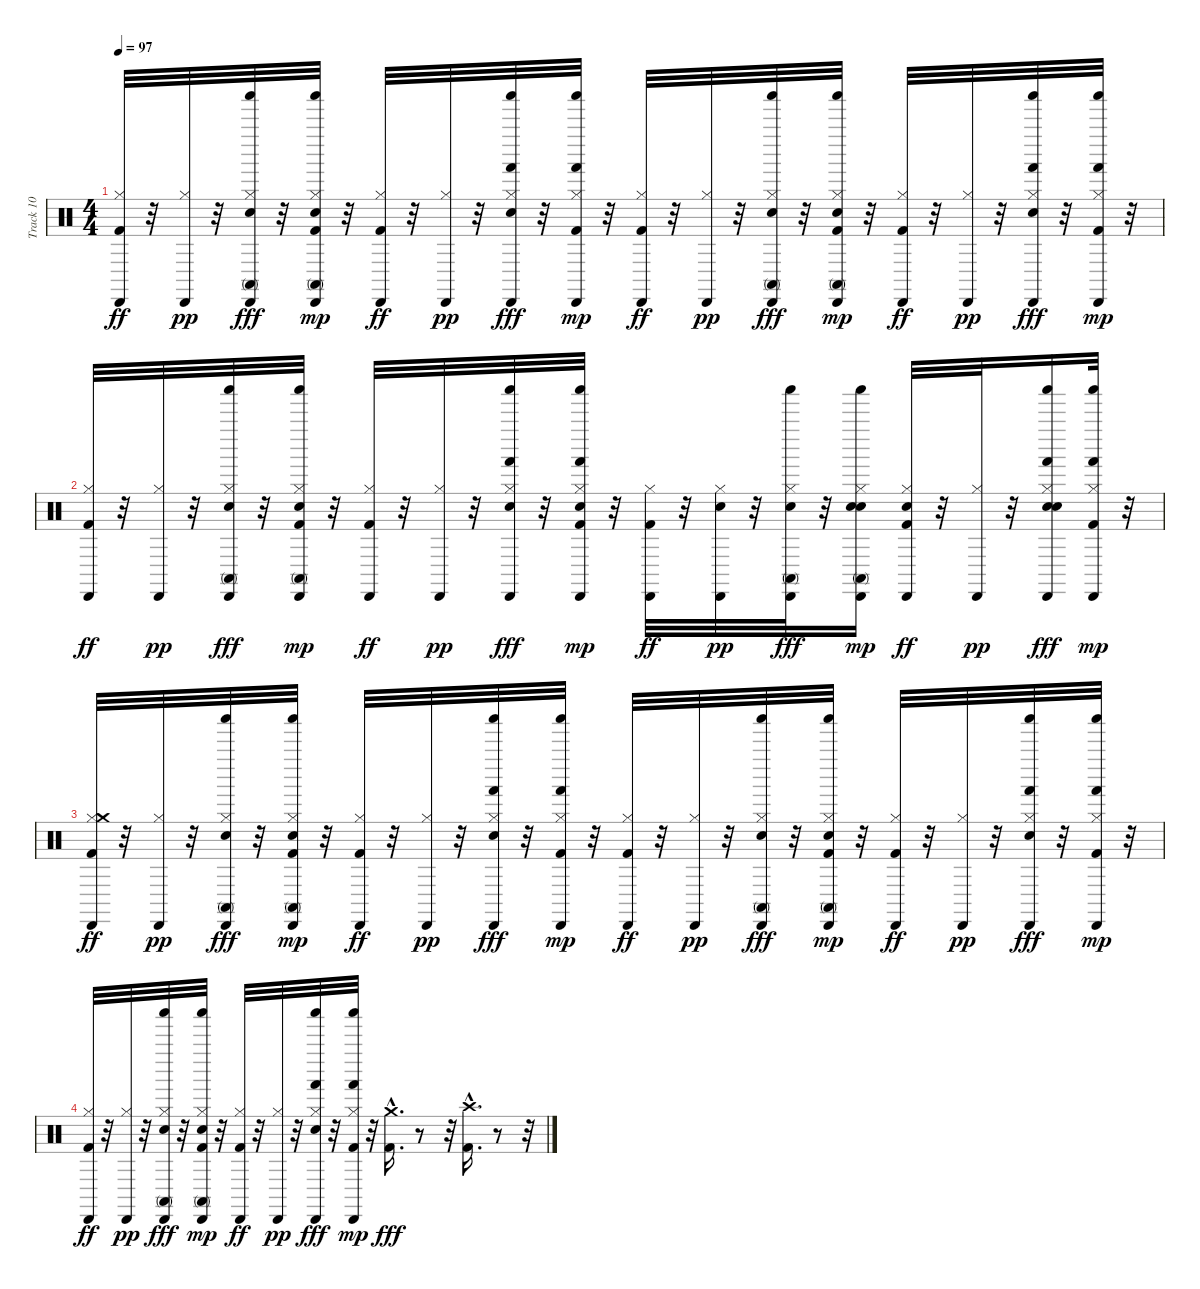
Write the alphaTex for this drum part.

\track ("Track 10" "Track 10") {instrument percussion}
\staff {score}
\articulation defaults
\ts (4 4)
\tempo 97
\clef neutral
\ks c
("Hi-Hat (closed)" "Cabasa (hit)" "Kick (hit) 2").32{dy ff} r.32 ("Hi-Hat (closed)" "Cabasa (hit)").32{dy pp} r.32 ("Hi-Hat (closed)" "Shaker (hit)" "Conga high (mute)" "Cabasa (hit)" "Snare (hit) 2").32{dy fff} r.32 ("Hi-Hat (closed)" "Shaker (hit)" "Conga high (mute)" "Cabasa (hit)" "Snare (hit) 2" "Kick (hit) 2").32{dy mp} r.32 ("Hi-Hat (closed)" "Cabasa (hit)" "Kick (hit) 2").32{dy ff} r.32 ("Hi-Hat (closed)" "Cabasa (hit)").32{dy pp} r.32 ("Hi-Hat (closed)" "Shaker (hit)" "Hand (hit)" "Cabasa (hit)" "Snare (hit) 2").32{dy fff} r.32 ("Hi-Hat (closed)" "Shaker (hit)" "Hand (hit)" "Cabasa (hit)" "Kick (hit) 2").32{dy mp} r.32 ("Hi-Hat (closed)" "Cabasa (hit)" "Kick (hit) 2").32{dy ff} r.32 ("Hi-Hat (closed)" "Cabasa (hit)").32{dy pp} r.32 ("Hi-Hat (closed)" "Shaker (hit)" "Conga high (mute)" "Cabasa (hit)" "Snare (hit) 2").32{dy fff} r.32 ("Hi-Hat (closed)" "Shaker (hit)" "Conga high (mute)" "Cabasa (hit)" "Kick (hit) 2" "Snare (hit) 2").32{dy mp} r.32 ("Hi-Hat (closed)" "Cabasa (hit)" "Kick (hit) 2").32{dy ff} r.32 ("Hi-Hat (closed)" "Cabasa (hit)").32{dy pp} r.32 ("Hi-Hat (closed)" "Shaker (hit)" "Hand (hit)" "Cabasa (hit)" "Snare (hit) 2").32{dy fff} r.32 ("Hi-Hat (closed)" "Shaker (hit)" "Hand (hit)" "Cabasa (hit)" "Kick (hit) 2").32{dy mp} r.32 |
("Hi-Hat (closed)" "Cabasa (hit)" "Kick (hit) 2").32{dy ff} r.32 ("Hi-Hat (closed)" "Cabasa (hit)").32{dy pp} r.32 ("Hi-Hat (closed)" "Shaker (hit)" "Conga high (mute)" "Cabasa (hit)" "Snare (hit) 2").32{dy fff} r.32 ("Hi-Hat (closed)" "Shaker (hit)" "Conga high (mute)" "Cabasa (hit)" "Kick (hit) 2" "Snare (hit) 2").32{dy mp} r.32 ("Hi-Hat (closed)" "Cabasa (hit)" "Kick (hit) 2").32{dy ff} r.32 ("Hi-Hat (closed)" "Cabasa (hit)").32{dy pp} r.32 ("Hi-Hat (closed)" "Shaker (hit)" "Hand (hit)" "Cabasa (hit)" "Snare (hit) 2").32{dy fff} r.32 ("Hi-Hat (closed)" "Shaker (hit)" "Hand (hit)" "Cabasa (hit)" "Snare (hit) 2" "Kick (hit) 2").32{dy mp} r.32 ("Hi-Hat (closed)" "Cabasa (hit)" "Kick (hit) 2").32{dy ff} r.32 ("Hi-Hat (closed)" "Cabasa (hit)" "Snare (hit) 2").32{dy pp} r.32 ("Hi-Hat (closed)" "Shaker (hit)" "Conga high (mute)" "Cabasa (hit)" "Snare (hit) 2").32{dy fff} r.32 ("Hi-Hat (closed)" "Shaker (hit)" "Conga high (mute)" "Cabasa (hit)" "Snare (hit) 2" "Snare (hit) 2").16{dy mp} ("Hi-Hat (closed)" "Cabasa (hit)" "Snare (hit) 2" "Kick (hit) 2").32{dy ff} r.32 ("Hi-Hat (closed)" "Cabasa (hit)").32{dy pp} r.32 ("Hi-Hat (closed)" "Shaker (hit)" "Hand (hit)" "Cabasa (hit)" "Snare (hit) 2" "Snare (hit) 2").16{dy fff} ("Hi-Hat (closed)" "Shaker (hit)" "Hand (hit)" "Cabasa (hit)" "Kick (hit) 2").32{dy mp} r.32 |
("Hi-Hat (closed)" "Cabasa (hit)" "Crash medium (hit)" "Kick (hit) 2").32{dy ff} r.32 ("Hi-Hat (closed)" "Cabasa (hit)").32{dy pp} r.32 ("Hi-Hat (closed)" "Shaker (hit)" "Conga high (mute)" "Cabasa (hit)" "Snare (hit) 2").32{dy fff} r.32 ("Hi-Hat (closed)" "Shaker (hit)" "Conga high (mute)" "Cabasa (hit)" "Snare (hit) 2" "Kick (hit) 2").32{dy mp} r.32 ("Hi-Hat (closed)" "Cabasa (hit)" "Kick (hit) 2").32{dy ff} r.32 ("Hi-Hat (closed)" "Cabasa (hit)").32{dy pp} r.32 ("Hi-Hat (closed)" "Shaker (hit)" "Hand (hit)" "Cabasa (hit)" "Snare (hit) 2").32{dy fff} r.32 ("Hi-Hat (closed)" "Shaker (hit)" "Hand (hit)" "Cabasa (hit)" "Kick (hit) 2").32{dy mp} r.32 ("Hi-Hat (closed)" "Cabasa (hit)" "Kick (hit) 2").32{dy ff} r.32 ("Hi-Hat (closed)" "Cabasa (hit)").32{dy pp} r.32 ("Hi-Hat (closed)" "Shaker (hit)" "Conga high (mute)" "Cabasa (hit)" "Snare (hit) 2").32{dy fff} r.32 ("Hi-Hat (closed)" "Shaker (hit)" "Conga high (mute)" "Cabasa (hit)" "Snare (hit) 2" "Kick (hit) 2").32{dy mp} r.32 ("Hi-Hat (closed)" "Cabasa (hit)" "Kick (hit) 2").32{dy ff} r.32 ("Hi-Hat (closed)" "Cabasa (hit)").32{dy pp} r.32 ("Hi-Hat (closed)" "Shaker (hit)" "Hand (hit)" "Cabasa (hit)" "Snare (hit) 2").32{dy fff} r.32 ("Hi-Hat (closed)" "Shaker (hit)" "Hand (hit)" "Cabasa (hit)" "Kick (hit) 2").32{dy mp} r.32 |
("Hi-Hat (closed)" "Cabasa (hit)" "Kick (hit) 2").32{dy ff} r.32 ("Hi-Hat (closed)" "Cabasa (hit)").32{dy pp} r.32 ("Hi-Hat (closed)" "Shaker (hit)" "Conga high (mute)" "Cabasa (hit)" "Snare (hit) 2").32{dy fff} r.32 ("Hi-Hat (closed)" "Shaker (hit)" "Conga high (mute)" "Cabasa (hit)" "Snare (hit) 2" "Kick (hit) 2").32{dy mp} r.32 ("Hi-Hat (closed)" "Cabasa (hit)" "Kick (hit) 2").32{dy ff} r.32 ("Hi-Hat (closed)" "Cabasa (hit)").32{dy pp} r.32 ("Hi-Hat (closed)" "Shaker (hit)" "Hand (hit)" "Cabasa (hit)" "Snare (hit) 2").32{dy fff} r.32 ("Hi-Hat (closed)" "Shaker (hit)" "Hand (hit)" "Cabasa (hit)" "Kick (hit) 2").32{dy mp} r.32 ("Crash medium (hit)" "Kick (hit) 2"{hac}).16{d dy fff} r.8 r.32 ("Crash high (hit)" "Kick (hit) 2"{hac}).16{d} r.8 r.32
